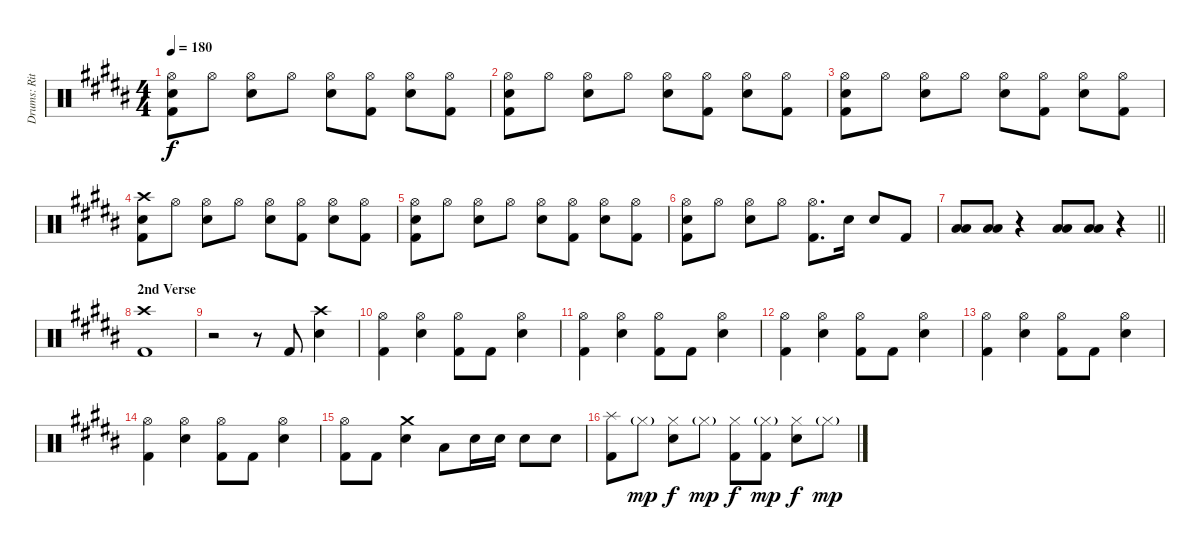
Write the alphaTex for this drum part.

\track ("Drums: Ritsu " "Drums: Rit") {instrument percussion}
\staff {score}
\articulation defaults
\ts (4 4)
\tempo 180
\clef neutral
\ks b
("Hi-Hat (open)" "Electric Snare (hit)" "Kick (hit) 2").8{dy f} "Hi-Hat (open)".8 ("Hi-Hat (open)" "Electric Snare (hit)").8 "Hi-Hat (open)".8 ("Hi-Hat (open)" "Electric Snare (hit)").8 ("Hi-Hat (open)" "Kick (hit) 2").8 ("Hi-Hat (open)" "Electric Snare (hit)").8 ("Hi-Hat (open)" "Kick (hit) 2").8 |
("Hi-Hat (open)" "Electric Snare (hit)" "Kick (hit) 2").8 "Hi-Hat (open)".8 ("Hi-Hat (open)" "Electric Snare (hit)").8 "Hi-Hat (open)".8 ("Hi-Hat (open)" "Electric Snare (hit)").8 ("Hi-Hat (open)" "Kick (hit) 2").8 ("Hi-Hat (open)" "Electric Snare (hit)").8 ("Hi-Hat (open)" "Kick (hit) 2").8 |
("Hi-Hat (open)" "Electric Snare (hit)" "Kick (hit) 2").8 "Hi-Hat (open)".8 ("Hi-Hat (open)" "Electric Snare (hit)").8 "Hi-Hat (open)".8 ("Hi-Hat (open)" "Electric Snare (hit)").8 ("Hi-Hat (open)" "Kick (hit) 2").8 ("Hi-Hat (open)" "Electric Snare (hit)").8 ("Hi-Hat (open)" "Kick (hit) 2").8 |
("Crash high (hit)" "Electric Snare (hit)" "Kick (hit) 2").8 "Hi-Hat (open)".8 ("Hi-Hat (open)" "Electric Snare (hit)").8 "Hi-Hat (open)".8 ("Hi-Hat (open)" "Electric Snare (hit)").8 ("Hi-Hat (open)" "Kick (hit) 2").8 ("Hi-Hat (open)" "Electric Snare (hit)").8 ("Hi-Hat (open)" "Kick (hit) 2").8 |
("Hi-Hat (open)" "Electric Snare (hit)" "Kick (hit) 2").8 "Hi-Hat (open)".8 ("Hi-Hat (open)" "Electric Snare (hit)").8 "Hi-Hat (open)".8 ("Hi-Hat (open)" "Electric Snare (hit)").8 ("Hi-Hat (open)" "Kick (hit) 2").8 ("Hi-Hat (open)" "Electric Snare (hit)").8 ("Hi-Hat (open)" "Kick (hit) 2").8 |
("Hi-Hat (open)" "Electric Snare (hit)" "Kick (hit) 2").8 "Hi-Hat (open)".8 ("Hi-Hat (open)" "Electric Snare (hit)").8 "Hi-Hat (open)".8 ("Hi-Hat (open)" "Kick (hit) 2").8{d} "Electric Snare (hit)".16 "Electric Snare (hit)".8 "Kick (hit) 2".8 |
\barLineRight lightlight
("Low Tom (hit)" "Low Floor Tom (hit)").8 ("Low Tom (hit)" "Low Floor Tom (hit)").8 r.4 ("Low Tom (hit)" "Low Floor Tom (hit)").8 ("Low Tom (hit)" "Low Floor Tom (hit)").8 r.4 |
\section ("" "2nd Verse")
("Crash high (hit)" "Kick (hit) 2").1 |
r.2 r.8 "Kick (hit) 2".8 ("Crash high (hit)" "Electric Snare (hit)").4 |
("Hi-Hat (open)" "Kick (hit) 2").4 ("Hi-Hat (open)" "Electric Snare (hit)").4 ("Hi-Hat (open)" "Kick (hit) 2").8 "Kick (hit) 2".8 ("Hi-Hat (open)" "Electric Snare (hit)").4 |
("Hi-Hat (open)" "Kick (hit) 2").4 ("Hi-Hat (open)" "Electric Snare (hit)").4 ("Hi-Hat (open)" "Kick (hit) 2").8 "Kick (hit) 2".8 ("Hi-Hat (open)" "Electric Snare (hit)").4 |
("Hi-Hat (open)" "Kick (hit) 2").4 ("Hi-Hat (open)" "Electric Snare (hit)").4 ("Hi-Hat (open)" "Kick (hit) 2").8 "Kick (hit) 2".8 ("Hi-Hat (open)" "Electric Snare (hit)").4 |
("Hi-Hat (open)" "Kick (hit) 2").4 ("Hi-Hat (open)" "Electric Snare (hit)").4 ("Hi-Hat (open)" "Kick (hit) 2").8 "Kick (hit) 2".8 ("Hi-Hat (open)" "Electric Snare (hit)").4 |
("Hi-Hat (open)" "Kick (hit) 2").4 ("Hi-Hat (open)" "Electric Snare (hit)").4 ("Hi-Hat (open)" "Kick (hit) 2").8 "Kick (hit) 2".8 ("Hi-Hat (open)" "Electric Snare (hit)").4 |
("Hi-Hat (open)" "Kick (hit) 2").8 "Kick (hit) 2".8 ("Crash medium (hit)" "Electric Snare (hit)").4 "Low Tom (hit)".8 "Electric Snare (hit)".16 "Electric Snare (hit)".16 "Electric Snare (hit)".8 "Electric Snare (hit)".8 |
("Splash (hit)" "Kick (hit) 2").8 "Hi-Hat (closed)"{g}.8{dy mp} ("Hi-Hat (closed)" "Electric Snare (hit)").8{dy f} "Hi-Hat (closed)"{g}.8{dy mp} ("Hi-Hat (closed)" "Kick (hit) 2").8{dy f} ("Hi-Hat (closed)"{g} "Kick (hit) 2").8{dy mp} ("Hi-Hat (closed)" "Electric Snare (hit)").8{dy f} "Hi-Hat (closed)"{g}.8{dy mp}
